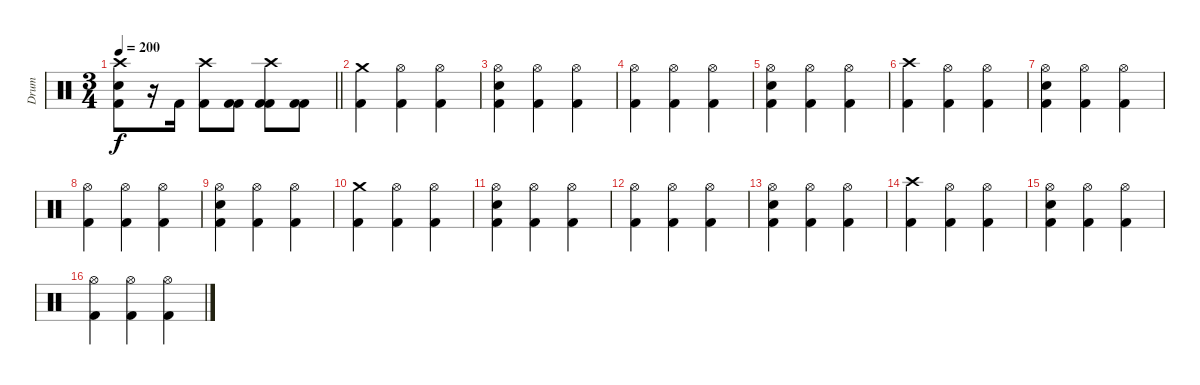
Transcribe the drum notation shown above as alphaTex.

\track ("Drum" "Drum") {instrument percussion}
\staff {score}
\articulation defaults
\ts (3 4)
\tempo 200
\clef neutral
\barLineRight lightlight
\ks c
("Crash high (hit)" "Electric Snare (hit)" "Kick (hit) 2").8{dy f} r.16 "Kick (hit) 2".16 ("Crash high (hit)" "Kick (hit) 2").8 ("Kick (hit) 2" "Kick (hit) 2").8 ("Crash high (hit)" "Kick (hit) 2" "Kick (hit) 2").8 ("Kick (hit) 2" "Kick (hit) 2").8 |
("Crash medium (hit)" "Kick (hit) 2").4 ("Hi-Hat (open)" "Kick (hit) 2").4 ("Hi-Hat (open)" "Kick (hit) 2").4 |
("Hi-Hat (open)" "Electric Snare (hit)" "Kick (hit) 2").4 ("Hi-Hat (open)" "Kick (hit) 2").4 ("Hi-Hat (open)" "Kick (hit) 2").4 |
("Hi-Hat (open)" "Kick (hit) 2").4 ("Hi-Hat (open)" "Kick (hit) 2").4 ("Hi-Hat (open)" "Kick (hit) 2").4 |
("Hi-Hat (open)" "Electric Snare (hit)" "Kick (hit) 2").4 ("Hi-Hat (open)" "Kick (hit) 2").4 ("Hi-Hat (open)" "Kick (hit) 2").4 |
("Crash high (hit)" "Kick (hit) 2").4 ("Hi-Hat (open)" "Kick (hit) 2").4 ("Hi-Hat (open)" "Kick (hit) 2").4 |
("Hi-Hat (open)" "Electric Snare (hit)" "Kick (hit) 2").4 ("Hi-Hat (open)" "Kick (hit) 2").4 ("Hi-Hat (open)" "Kick (hit) 2").4 |
("Hi-Hat (open)" "Kick (hit) 2").4 ("Hi-Hat (open)" "Kick (hit) 2").4 ("Hi-Hat (open)" "Kick (hit) 2").4 |
("Hi-Hat (open)" "Electric Snare (hit)" "Kick (hit) 2").4 ("Hi-Hat (open)" "Kick (hit) 2").4 ("Hi-Hat (open)" "Kick (hit) 2").4 |
("Crash medium (hit)" "Kick (hit) 2").4 ("Hi-Hat (open)" "Kick (hit) 2").4 ("Hi-Hat (open)" "Kick (hit) 2").4 |
("Hi-Hat (open)" "Electric Snare (hit)" "Kick (hit) 2").4 ("Hi-Hat (open)" "Kick (hit) 2").4 ("Hi-Hat (open)" "Kick (hit) 2").4 |
("Hi-Hat (open)" "Kick (hit) 2").4 ("Hi-Hat (open)" "Kick (hit) 2").4 ("Hi-Hat (open)" "Kick (hit) 2").4 |
("Hi-Hat (open)" "Electric Snare (hit)" "Kick (hit) 2").4 ("Hi-Hat (open)" "Kick (hit) 2").4 ("Hi-Hat (open)" "Kick (hit) 2").4 |
("Crash high (hit)" "Kick (hit) 2").4 ("Hi-Hat (open)" "Kick (hit) 2").4 ("Hi-Hat (open)" "Kick (hit) 2").4 |
("Hi-Hat (open)" "Electric Snare (hit)" "Kick (hit) 2").4 ("Hi-Hat (open)" "Kick (hit) 2").4 ("Hi-Hat (open)" "Kick (hit) 2").4 |
("Hi-Hat (open)" "Kick (hit) 2").4 ("Hi-Hat (open)" "Kick (hit) 2").4 ("Hi-Hat (open)" "Kick (hit) 2").4
